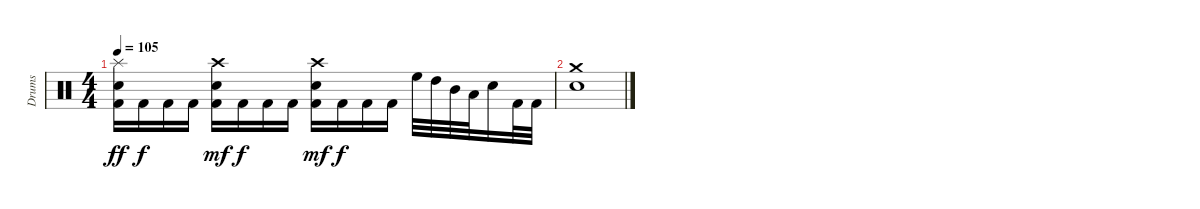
\track ("Drums" "Drums") {instrument percussion}
\staff {score}
\articulation defaults
\ts (4 4)
\tempo 105
\clef neutral
\ks c
("Splash (hit)" "Electric Snare (hit)" "Kick (hit) 2").16{dy ff} "Kick (hit) 2".16{dy f} "Kick (hit) 2".16 "Kick (hit) 2".16 ("Crash high (hit)" "Electric Snare (hit)" "Kick (hit) 2").16{dy mf} "Kick (hit) 2".16{dy f} "Kick (hit) 2".16 "Kick (hit) 2".16 ("Crash high (hit)" "Electric Snare (hit)" "Kick (hit) 2").16{dy mf} "Kick (hit) 2".16{dy f} "Kick (hit) 2".16 "Kick (hit) 2".16 "High Floor Tom (hit)".32 "High Tom (hit)".32 "Mid Tom (hit)".32 "Low Tom (hit)".32 "Electric Snare (hit)".16 "Kick (hit) 2".32 "Kick (hit) 2".32 |
("Crash medium (hit)" "Electric Snare (hit)").1
